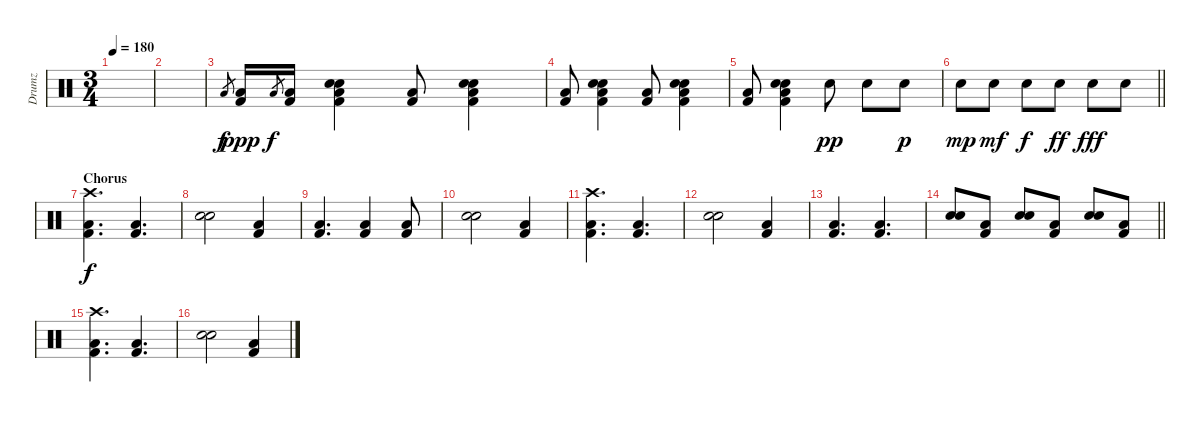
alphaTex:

\track ("Drumz" "Drumz") {instrument percussion}
\staff {score}
\articulation defaults
\ts (3 4)
\tempo 180
\clef neutral
\ks c
|
|
"Low Floor Tom (hit)".8{gr} ("Kick (hit) 2" "Low Floor Tom (hit)").16{dy ppp} "Low Floor Tom (hit)".8{gr dy f} ("Kick (hit) 2" "Low Floor Tom (hit)").16 ("Low Floor Tom (hit)" "Kick (hit) 2" "Electric Snare (hit)" "Electric Snare (hit)").4 ("Kick (hit) 2" "Low Floor Tom (hit)").8 ("Low Floor Tom (hit)" "Kick (hit) 2" "Electric Snare (hit)" "Electric Snare (hit)").4 |
("Kick (hit) 2" "Low Floor Tom (hit)").8 ("Low Floor Tom (hit)" "Kick (hit) 2" "Electric Snare (hit)" "Electric Snare (hit)").4 ("Kick (hit) 2" "Low Floor Tom (hit)").8 ("Low Floor Tom (hit)" "Kick (hit) 2" "Electric Snare (hit)" "Electric Snare (hit)").4 |
("Kick (hit) 2" "Low Floor Tom (hit)").8 ("Low Floor Tom (hit)" "Kick (hit) 2" "Electric Snare (hit)" "Electric Snare (hit)").4 "Electric Snare (hit)".8{dy pp} "Electric Snare (hit)".8 "Electric Snare (hit)".8{dy p} |
\barLineRight lightlight "Electric Snare (hit)".8{dy mp} "Electric Snare (hit)".8{dy mf} "Electric Snare (hit)".8{dy f} "Electric Snare (hit)".8{dy ff} "Electric Snare (hit)".8{dy fff} "Electric Snare (hit)".8
|
\section ("" "Chorus")
("Kick (hit) 2" "Low Floor Tom (hit)" "Crash high (hit)").4{d dy f} ("Kick (hit) 2" "Low Floor Tom (hit)").4{d} |
("Electric Snare (hit)" "Electric Snare (hit)").2 ("Kick (hit) 2" "Low Floor Tom (hit)").4 |
("Kick (hit) 2" "Low Floor Tom (hit)").4{d} ("Kick (hit) 2" "Low Floor Tom (hit)").4 ("Kick (hit) 2" "Low Floor Tom (hit)").8 |
("Electric Snare (hit)" "Electric Snare (hit)").2 ("Kick (hit) 2" "Low Floor Tom (hit)").4 |
("Kick (hit) 2" "Low Floor Tom (hit)" "Crash high (hit)").4{d} ("Kick (hit) 2" "Low Floor Tom (hit)").4{d} |
("Electric Snare (hit)" "Electric Snare (hit)").2 ("Kick (hit) 2" "Low Floor Tom (hit)").4 |
("Kick (hit) 2" "Low Floor Tom (hit)").4{d} ("Kick (hit) 2" "Low Floor Tom (hit)").4{d} |
\barLineRight lightlight
("Electric Snare (hit)" "Electric Snare (hit)").8 ("Kick (hit) 2" "Low Floor Tom (hit)").8 ("Electric Snare (hit)" "Electric Snare (hit)").8 ("Kick (hit) 2" "Low Floor Tom (hit)").8 ("Electric Snare (hit)" "Electric Snare (hit)").8 ("Kick (hit) 2" "Low Floor Tom (hit)").8 |
("Kick (hit) 2" "Low Floor Tom (hit)" "Crash high (hit)").4{d} ("Kick (hit) 2" "Low Floor Tom (hit)").4{d} |
("Electric Snare (hit)" "Electric Snare (hit)").2 ("Kick (hit) 2" "Low Floor Tom (hit)").4
